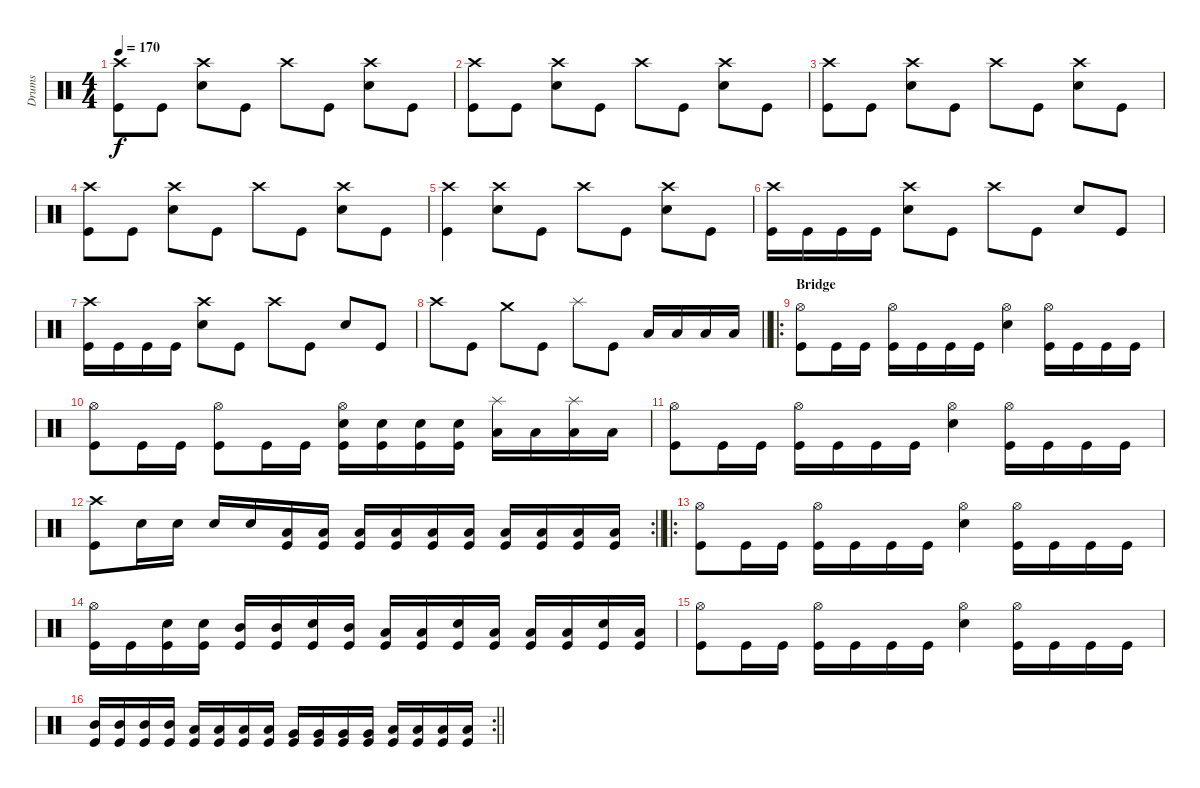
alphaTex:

\track ("Drums" "Drums") {instrument percussion}
\staff {score}
\articulation defaults
\ts (4 4)
\tempo 170
\clef neutral
\ks c
("Crash high (hit)" "Kick (hit)").8{dy f} "Kick (hit)".8 ("Crash high (hit)" "Snare (hit) 2").8 "Kick (hit)".8 "Crash high (hit)".8 "Kick (hit)".8 ("Crash high (hit)" "Snare (hit) 2").8 "Kick (hit)".8 |
("Crash high (hit)" "Kick (hit)").8 "Kick (hit)".8 ("Crash high (hit)" "Snare (hit) 2").8 "Kick (hit)".8 "Crash high (hit)".8 "Kick (hit)".8 ("Crash high (hit)" "Snare (hit) 2").8 "Kick (hit)".8 |
("Crash high (hit)" "Kick (hit)").8 "Kick (hit)".8 ("Crash high (hit)" "Snare (hit) 2").8 "Kick (hit)".8 "Crash high (hit)".8 "Kick (hit)".8 ("Crash high (hit)" "Snare (hit) 2").8 "Kick (hit)".8 |
("Crash high (hit)" "Kick (hit)").8 "Kick (hit)".8 ("Crash high (hit)" "Snare (hit) 2").8 "Kick (hit)".8 "Crash high (hit)".8 "Kick (hit)".8 ("Crash high (hit)" "Snare (hit) 2").8 "Kick (hit)".8 |
("Crash high (hit)" "Kick (hit)").4 ("Crash high (hit)" "Snare (hit) 2").8 "Kick (hit)".8 "Crash high (hit)".8 "Kick (hit)".8 ("Crash high (hit)" "Snare (hit) 2").8 "Kick (hit)".8 |
("Crash high (hit)" "Kick (hit)").16 "Kick (hit)".16 "Kick (hit)".16 "Kick (hit)".16 ("Crash high (hit)" "Snare (hit) 2").8 "Kick (hit)".8 "Crash high (hit)".8 "Kick (hit)".8 "Snare (hit) 2".8 "Kick (hit)".8 |
("Crash high (hit)" "Kick (hit)").16 "Kick (hit)".16 "Kick (hit)".16 "Kick (hit)".16 ("Crash high (hit)" "Snare (hit) 2").8 "Kick (hit)".8 "Crash high (hit)".8 "Kick (hit)".8 "Snare (hit) 2".8 "Kick (hit)".8 |
\barLineRight lightlight "Crash high (hit)".8 "Kick (hit)".8 "Crash medium (hit)".8 "Kick (hit)".8 "Splash (hit)".8 "Kick (hit)".8 "Low Tom (hit)".16 "Low Tom (hit)".16 "Low Floor Tom (hit)".16 "Low Floor Tom (hit)".16
|
\ro
\section ("" "Bridge")
("Hi-Hat (open)" "Kick (hit)").8 "Kick (hit)".16 "Kick (hit)".16 ("Hi-Hat (open)" "Kick (hit)").16 "Kick (hit)".16 "Kick (hit)".16 "Kick (hit)".16 ("Hi-Hat (open)" "Snare (hit) 2").4 ("Hi-Hat (open)" "Kick (hit)").16 "Kick (hit)".16 "Kick (hit)".16 "Kick (hit)".16 |
("Hi-Hat (open)" "Kick (hit)").8 "Kick (hit)".16 "Kick (hit)".16 ("Hi-Hat (open)" "Kick (hit)").8 "Kick (hit)".16 "Kick (hit)".16 ("Hi-Hat (open)" "Snare (hit) 2" "Kick (hit)").16 ("Snare (hit) 2" "Kick (hit)").16 ("Snare (hit) 2" "Kick (hit)").16 ("Snare (hit) 2" "Kick (hit)").16 ("Splash (hit)" "Low Tom (hit)").16 "Low Tom (hit)".16 ("Splash (hit)" "Low Floor Tom (hit)").16 "Low Floor Tom (hit)".16 |
("Hi-Hat (open)" "Kick (hit)").8 "Kick (hit)".16 "Kick (hit)".16 ("Hi-Hat (open)" "Kick (hit)").16 "Kick (hit)".16 "Kick (hit)".16 "Kick (hit)".16 ("Hi-Hat (open)" "Snare (hit) 2").4 ("Hi-Hat (open)" "Kick (hit)").16 "Kick (hit)".16 "Kick (hit)".16 "Kick (hit)".16 |
\rc 2
\barLineRight lightlight
("Crash high (hit)" "Kick (hit)").8 "Snare (hit) 2".16 "Snare (hit) 2".16 "Snare (hit) 2".16 "Snare (hit) 2".16 ("Low Tom (hit)" "Kick (hit)").16 ("Low Tom (hit)" "Kick (hit)").16 ("Low Floor Tom (hit)" "Kick (hit)").16 ("Low Floor Tom (hit)" "Kick (hit)").16 ("Low Tom (hit)" "Kick (hit)").16 ("Low Tom (hit)" "Kick (hit)").16 ("Low Floor Tom (hit)" "Kick (hit)").16 ("Low Floor Tom (hit)" "Kick (hit)").16 ("Low Floor Tom (hit)" "Kick (hit)").16 ("Low Floor Tom (hit)" "Kick (hit)").16 |
\ro
("Hi-Hat (open)" "Kick (hit)").8 "Kick (hit)".16 "Kick (hit)".16 ("Hi-Hat (open)" "Kick (hit)").16 "Kick (hit)".16 "Kick (hit)".16 "Kick (hit)".16 ("Hi-Hat (open)" "Snare (hit) 2").4 ("Hi-Hat (open)" "Kick (hit)").16 "Kick (hit)".16 "Kick (hit)".16 "Kick (hit)".16 |
("Hi-Hat (open)" "Kick (hit)").16 "Kick (hit)".16 ("Snare (hit) 2" "Kick (hit)").16 ("Snare (hit) 2" "Kick (hit)").16 ("Mid Tom (hit)" "Kick (hit)").16 ("Mid Tom (hit)" "Kick (hit)").16 ("Snare (hit) 2" "Kick (hit)").16 ("Mid Tom (hit)" "Kick (hit)").16 ("Low Tom (hit)" "Kick (hit)").16 ("Low Tom (hit)" "Kick (hit)").16 ("Snare (hit) 2" "Kick (hit)").16 ("Low Tom (hit)" "Kick (hit)").16 ("Low Floor Tom (hit)" "Kick (hit)").16 ("Low Floor Tom (hit)" "Kick (hit)").16 ("Snare (hit) 2" "Kick (hit)").16 ("Low Floor Tom (hit)" "Kick (hit)").16 |
("Hi-Hat (open)" "Kick (hit)").8 "Kick (hit)".16 "Kick (hit)".16 ("Hi-Hat (open)" "Kick (hit)").16 "Kick (hit)".16 "Kick (hit)".16 "Kick (hit)".16 ("Hi-Hat (open)" "Snare (hit) 2").4 ("Hi-Hat (open)" "Kick (hit)").16 "Kick (hit)".16 "Kick (hit)".16 "Kick (hit)".16 |
\rc 2
\barLineRight lightlight
("Mid Tom (hit)" "Kick (hit)").16 ("Mid Tom (hit)" "Kick (hit)").16 ("Mid Tom (hit)" "Kick (hit)").16 ("Mid Tom (hit)" "Kick (hit)").16 ("Low Tom (hit)" "Kick (hit)").16 ("Low Tom (hit)" "Kick (hit)").16 ("Low Tom (hit)" "Kick (hit)").16 ("Low Tom (hit)" "Kick (hit)").16 ("Very Low Tom (hit)" "Kick (hit)").16 ("Very Low Tom (hit)" "Kick (hit)").16 ("Very Low Tom (hit)" "Kick (hit)").16 ("Very Low Tom (hit)" "Kick (hit)").16 ("Low Floor Tom (hit)" "Kick (hit)").16 ("Low Floor Tom (hit)" "Kick (hit)").16 ("Low Floor Tom (hit)" "Kick (hit)").16 ("Low Floor Tom (hit)" "Kick (hit)").16
